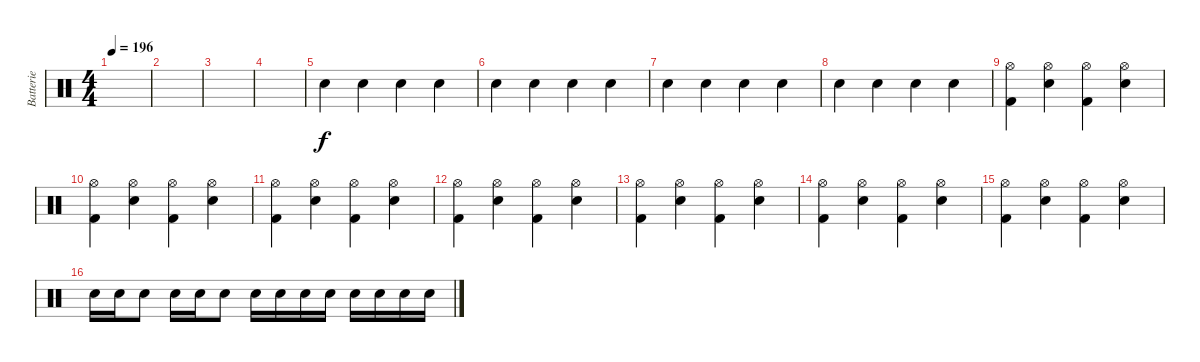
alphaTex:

\track ("Batterie" "Batterie") {instrument percussion}
\staff {score}
\articulation defaults
\ts (4 4)
\tempo 196
\clef neutral
\ks c
|
|
|
|
"Electric Snare (hit)".4 "Electric Snare (hit)".4 "Electric Snare (hit)".4 "Electric Snare (hit)".4 |
"Electric Snare (hit)".4 "Electric Snare (hit)".4 "Electric Snare (hit)".4 "Electric Snare (hit)".4 |
"Electric Snare (hit)".4 "Electric Snare (hit)".4 "Electric Snare (hit)".4 "Electric Snare (hit)".4 |
"Electric Snare (hit)".4 "Electric Snare (hit)".4 "Electric Snare (hit)".4 "Electric Snare (hit)".4 |
("Hi-Hat (open)" "Kick (hit) 2").4 ("Hi-Hat (open)" "Electric Snare (hit)").4 ("Hi-Hat (open)" "Kick (hit) 2").4 ("Hi-Hat (open)" "Electric Snare (hit)").4 |
("Hi-Hat (open)" "Kick (hit) 2").4 ("Hi-Hat (open)" "Electric Snare (hit)").4 ("Hi-Hat (open)" "Kick (hit) 2").4 ("Hi-Hat (open)" "Electric Snare (hit)").4 |
("Hi-Hat (open)" "Kick (hit) 2").4 ("Hi-Hat (open)" "Electric Snare (hit)").4 ("Hi-Hat (open)" "Kick (hit) 2").4 ("Hi-Hat (open)" "Electric Snare (hit)").4 |
("Hi-Hat (open)" "Kick (hit) 2").4 ("Hi-Hat (open)" "Electric Snare (hit)").4 ("Hi-Hat (open)" "Kick (hit) 2").4 ("Hi-Hat (open)" "Electric Snare (hit)").4 |
("Hi-Hat (open)" "Kick (hit) 2").4 ("Hi-Hat (open)" "Electric Snare (hit)").4 ("Hi-Hat (open)" "Kick (hit) 2").4 ("Hi-Hat (open)" "Electric Snare (hit)").4 |
("Hi-Hat (open)" "Kick (hit) 2").4 ("Hi-Hat (open)" "Electric Snare (hit)").4 ("Hi-Hat (open)" "Kick (hit) 2").4 ("Hi-Hat (open)" "Electric Snare (hit)").4 |
("Hi-Hat (open)" "Kick (hit) 2").4 ("Hi-Hat (open)" "Electric Snare (hit)").4 ("Hi-Hat (open)" "Kick (hit) 2").4 ("Hi-Hat (open)" "Electric Snare (hit)").4 |
"Electric Snare (hit)".16 "Electric Snare (hit)".16 "Electric Snare (hit)".8 "Electric Snare (hit)".16 "Electric Snare (hit)".16 "Electric Snare (hit)".8 "Electric Snare (hit)".16 "Electric Snare (hit)".16 "Electric Snare (hit)".16 "Electric Snare (hit)".16 "Electric Snare (hit)".16 "Electric Snare (hit)".16 "Electric Snare (hit)".16 "Electric Snare (hit)".16
